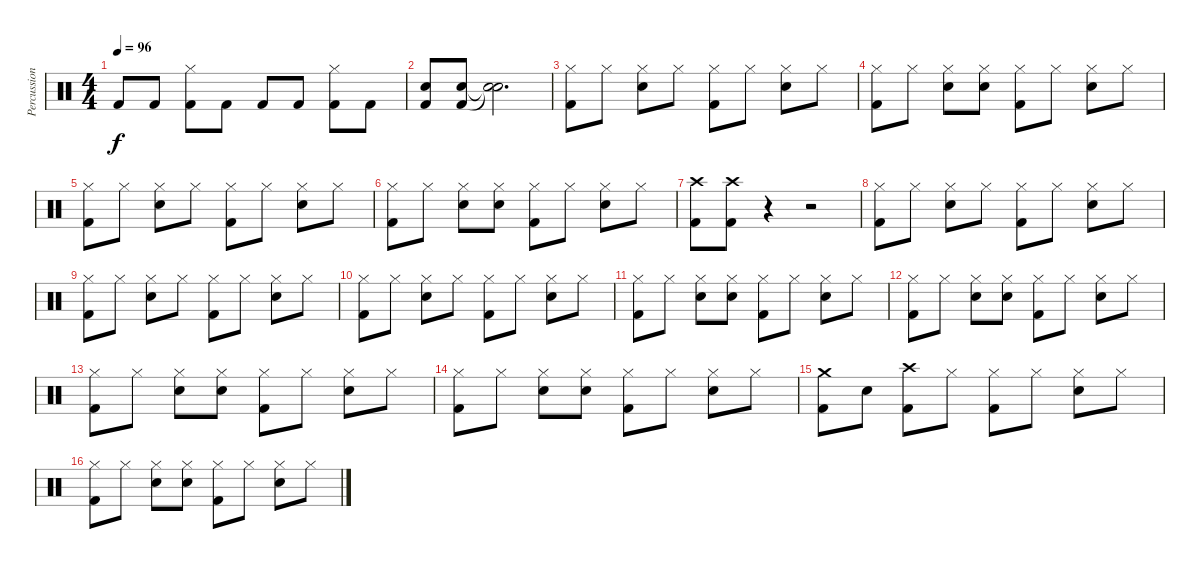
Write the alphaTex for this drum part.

\track ("Percussion" "Percussion") {instrument percussion}
\staff {score}
\articulation defaults
\ts (4 4)
\tempo 96
\clef neutral
\ks c "Kick (hit) 2".8{dy f} "Kick (hit) 2".8
("Hi-Hat (closed)" "Kick (hit) 2").8 "Kick (hit) 2".8 "Kick (hit) 2".8 "Kick (hit) 2".8 ("Hi-Hat (closed)" "Kick (hit) 2").8 "Kick (hit) 2".8 |
("Snare (hit) 2" "Kick (hit) 2").8 ("Kick (hit) 2" "Snare (hit) 2").8 ("Snare (hit)"{t} "Snare (hit)"{t}).2{d} |
("Hi-Hat (closed)" "Kick (hit) 2").8 "Hi-Hat (closed)".8 ("Hi-Hat (closed)" "Snare (hit) 2").8 "Hi-Hat (closed)".8 ("Hi-Hat (closed)" "Kick (hit) 2").8 "Hi-Hat (closed)".8 ("Hi-Hat (closed)" "Snare (hit) 2").8 "Hi-Hat (closed)".8 |
("Hi-Hat (closed)" "Kick (hit) 2").8 "Hi-Hat (closed)".8 ("Hi-Hat (closed)" "Snare (hit) 2").8 ("Hi-Hat (closed)" "Snare (hit) 2").8 ("Hi-Hat (closed)" "Kick (hit) 2").8 "Hi-Hat (closed)".8 ("Hi-Hat (closed)" "Snare (hit) 2").8 "Hi-Hat (closed)".8 |
("Hi-Hat (closed)" "Kick (hit) 2").8 "Hi-Hat (closed)".8 ("Hi-Hat (closed)" "Snare (hit) 2").8 "Hi-Hat (closed)".8 ("Hi-Hat (closed)" "Kick (hit) 2").8 "Hi-Hat (closed)".8 ("Hi-Hat (closed)" "Snare (hit) 2").8 "Hi-Hat (closed)".8 |
("Hi-Hat (closed)" "Kick (hit) 2").8 "Hi-Hat (closed)".8 ("Hi-Hat (closed)" "Snare (hit) 2").8 ("Hi-Hat (closed)" "Snare (hit) 2").8 ("Hi-Hat (closed)" "Kick (hit) 2").8 "Hi-Hat (closed)".8 ("Hi-Hat (closed)" "Snare (hit) 2").8 "Hi-Hat (closed)".8 |
("Kick (hit) 2" "Crash high (hit)").8 ("Kick (hit) 2" "Crash high (hit)").8 r.4 r.2 |
("Hi-Hat (closed)" "Kick (hit) 2").8 "Hi-Hat (closed)".8 ("Hi-Hat (closed)" "Snare (hit) 2").8 "Hi-Hat (closed)".8 ("Hi-Hat (closed)" "Kick (hit) 2").8 "Hi-Hat (closed)".8 ("Hi-Hat (closed)" "Snare (hit) 2").8 "Hi-Hat (closed)".8 |
("Hi-Hat (closed)" "Kick (hit) 2").8 "Hi-Hat (closed)".8 ("Hi-Hat (closed)" "Snare (hit) 2").8 "Hi-Hat (closed)".8 ("Hi-Hat (closed)" "Kick (hit) 2").8 "Hi-Hat (closed)".8 ("Hi-Hat (closed)" "Snare (hit) 2").8 "Hi-Hat (closed)".8 |
("Hi-Hat (closed)" "Kick (hit) 2").8 "Hi-Hat (closed)".8 ("Hi-Hat (closed)" "Snare (hit) 2").8 "Hi-Hat (closed)".8 ("Hi-Hat (closed)" "Kick (hit) 2").8 "Hi-Hat (closed)".8 ("Hi-Hat (closed)" "Snare (hit) 2").8 "Hi-Hat (closed)".8 |
("Hi-Hat (closed)" "Kick (hit) 2").8 "Hi-Hat (closed)".8 ("Hi-Hat (closed)" "Snare (hit) 2").8 ("Hi-Hat (closed)" "Snare (hit) 2").8 ("Hi-Hat (closed)" "Kick (hit) 2").8 "Hi-Hat (closed)".8 ("Hi-Hat (closed)" "Snare (hit) 2").8 "Hi-Hat (closed)".8 |
("Hi-Hat (closed)" "Kick (hit) 2").8 "Hi-Hat (closed)".8 ("Hi-Hat (closed)" "Snare (hit) 2").8 ("Hi-Hat (closed)" "Snare (hit) 2").8 ("Hi-Hat (closed)" "Kick (hit) 2").8 "Hi-Hat (closed)".8 ("Hi-Hat (closed)" "Snare (hit) 2").8 "Hi-Hat (closed)".8 |
("Hi-Hat (closed)" "Kick (hit) 2").8 "Hi-Hat (closed)".8 ("Hi-Hat (closed)" "Snare (hit) 2").8 ("Hi-Hat (closed)" "Snare (hit) 2").8 ("Hi-Hat (closed)" "Kick (hit) 2").8 "Hi-Hat (closed)".8 ("Hi-Hat (closed)" "Snare (hit) 2").8 "Hi-Hat (closed)".8 |
("Hi-Hat (closed)" "Kick (hit) 2").8 "Hi-Hat (closed)".8 ("Hi-Hat (closed)" "Snare (hit) 2").8 ("Hi-Hat (closed)" "Snare (hit) 2").8 ("Hi-Hat (closed)" "Kick (hit) 2").8 "Hi-Hat (closed)".8 ("Hi-Hat (closed)" "Snare (hit) 2").8 "Hi-Hat (closed)".8 |
("Crash medium (hit)" "Kick (hit) 2").8 "Snare (hit) 2".8 ("Crash high (hit)" "Kick (hit) 2").8 "Hi-Hat (closed)".8 ("Hi-Hat (closed)" "Kick (hit) 2").8 "Hi-Hat (closed)".8 ("Hi-Hat (closed)" "Snare (hit) 2").8 "Hi-Hat (closed)".8 |
("Hi-Hat (closed)" "Kick (hit) 2").8 "Hi-Hat (closed)".8 ("Hi-Hat (closed)" "Snare (hit) 2").8 ("Hi-Hat (closed)" "Snare (hit) 2").8 ("Hi-Hat (closed)" "Kick (hit) 2").8 "Hi-Hat (closed)".8 ("Hi-Hat (closed)" "Snare (hit) 2").8 "Hi-Hat (closed)".8
